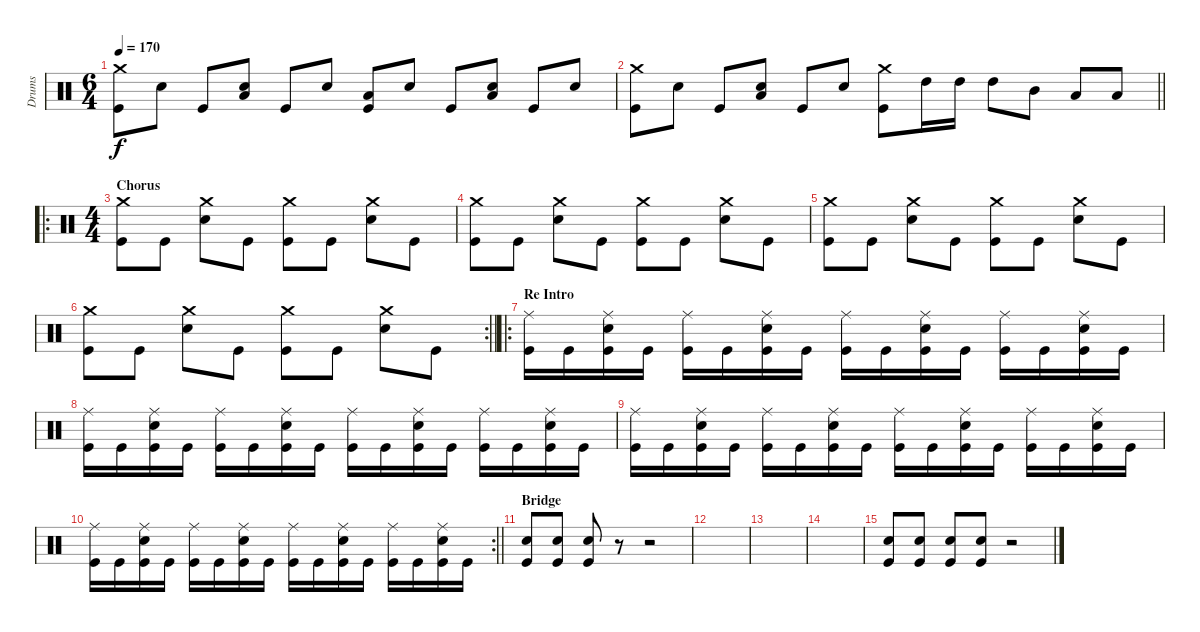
\track ("Drums" "Drums") {instrument percussion}
\staff {score}
\articulation defaults
\ts (6 4)
\tempo 170
\clef neutral
\ks c
("Crash medium (hit)" "Kick (hit)").8{dy f} "Snare (hit) 2".8 "Kick (hit)".8 ("Snare (hit) 2" "Low Floor Tom (hit)").8 "Kick (hit)".8 "Snare (hit) 2".8 ("Low Floor Tom (hit)" "Kick (hit)").8 "Snare (hit) 2".8 "Kick (hit)".8 ("Snare (hit) 2" "Low Floor Tom (hit)").8 "Kick (hit)".8 "Snare (hit) 2".8 |
\barLineRight lightlight
("Crash medium (hit)" "Kick (hit)").8 "Snare (hit) 2".8 "Kick (hit)".8 ("Snare (hit) 2" "Low Floor Tom (hit)").8 "Kick (hit)".8 "Snare (hit) 2".8 ("Crash medium (hit)" "Kick (hit)").8 "High Tom (hit)".16 "High Tom (hit)".16 "High Tom (hit)".8 "Mid Tom (hit)".8 "Low Tom (hit)".8 "Low Floor Tom (hit)".8 |
\ro
\ts (4 4)
\section ("" "Chorus")
("Crash medium (hit)" "Kick (hit)").8 "Kick (hit)".8 ("Crash medium (hit)" "Snare (hit) 2").8 "Kick (hit)".8 ("Crash medium (hit)" "Kick (hit)").8 "Kick (hit)".8 ("Crash medium (hit)" "Snare (hit) 2").8 "Kick (hit)".8 |
("Crash medium (hit)" "Kick (hit)").8 "Kick (hit)".8 ("Crash medium (hit)" "Snare (hit) 2").8 "Kick (hit)".8 ("Crash medium (hit)" "Kick (hit)").8 "Kick (hit)".8 ("Crash medium (hit)" "Snare (hit) 2").8 "Kick (hit)".8 |
("Crash medium (hit)" "Kick (hit)").8 "Kick (hit)".8 ("Crash medium (hit)" "Snare (hit) 2").8 "Kick (hit)".8 ("Crash medium (hit)" "Kick (hit)").8 "Kick (hit)".8 ("Crash medium (hit)" "Snare (hit) 2").8 "Kick (hit)".8 |
\rc 2
\barLineRight lightlight
("Crash medium (hit)" "Kick (hit)").8 "Kick (hit)".8 ("Crash medium (hit)" "Snare (hit) 2").8 "Kick (hit)".8 ("Crash medium (hit)" "Kick (hit)").8 "Kick (hit)".8 ("Crash medium (hit)" "Snare (hit) 2").8 "Kick (hit)".8 |
\ro
\section ("" "Re Intro")
("Ride (middle)" "Kick (hit)").16 "Kick (hit)".16 ("Ride (middle)" "Snare (hit) 2" "Kick (hit)").16 "Kick (hit)".16 ("Ride (middle)" "Kick (hit)").16 "Kick (hit)".16 ("Ride (middle)" "Snare (hit) 2" "Kick (hit)").16 "Kick (hit)".16 ("Ride (middle)" "Kick (hit)").16 "Kick (hit)".16 ("Ride (middle)" "Snare (hit) 2" "Kick (hit)").16 "Kick (hit)".16 ("Ride (middle)" "Kick (hit)").16 "Kick (hit)".16 ("Ride (middle)" "Snare (hit) 2" "Kick (hit)").16 "Kick (hit)".16 |
("Ride (middle)" "Kick (hit)").16 "Kick (hit)".16 ("Ride (middle)" "Snare (hit) 2" "Kick (hit)").16 "Kick (hit)".16 ("Ride (middle)" "Kick (hit)").16 "Kick (hit)".16 ("Ride (middle)" "Snare (hit) 2" "Kick (hit)").16 "Kick (hit)".16 ("Ride (middle)" "Kick (hit)").16 "Kick (hit)".16 ("Ride (middle)" "Snare (hit) 2" "Kick (hit)").16 "Kick (hit)".16 ("Ride (middle)" "Kick (hit)").16 "Kick (hit)".16 ("Ride (middle)" "Snare (hit) 2" "Kick (hit)").16 "Kick (hit)".16 |
("Ride (middle)" "Kick (hit)").16 "Kick (hit)".16 ("Ride (middle)" "Snare (hit) 2" "Kick (hit)").16 "Kick (hit)".16 ("Ride (middle)" "Kick (hit)").16 "Kick (hit)".16 ("Ride (middle)" "Snare (hit) 2" "Kick (hit)").16 "Kick (hit)".16 ("Ride (middle)" "Kick (hit)").16 "Kick (hit)".16 ("Ride (middle)" "Snare (hit) 2" "Kick (hit)").16 "Kick (hit)".16 ("Ride (middle)" "Kick (hit)").16 "Kick (hit)".16 ("Ride (middle)" "Snare (hit) 2" "Kick (hit)").16 "Kick (hit)".16 |
\rc 2
\barLineRight lightlight
("Ride (middle)" "Kick (hit)").16 "Kick (hit)".16 ("Ride (middle)" "Snare (hit) 2" "Kick (hit)").16 "Kick (hit)".16 ("Ride (middle)" "Kick (hit)").16 "Kick (hit)".16 ("Ride (middle)" "Snare (hit) 2" "Kick (hit)").16 "Kick (hit)".16 ("Ride (middle)" "Kick (hit)").16 "Kick (hit)".16 ("Ride (middle)" "Snare (hit) 2" "Kick (hit)").16 "Kick (hit)".16 ("Ride (middle)" "Kick (hit)").16 "Kick (hit)".16 ("Ride (middle)" "Snare (hit) 2" "Kick (hit)").16 "Kick (hit)".16 |
\section ("" "Bridge")
("Snare (hit) 2" "Kick (hit)").8 ("Snare (hit) 2" "Kick (hit)").8 ("Snare (hit) 2" "Kick (hit)").8 r.8 r.2 |
|
|
|
("Snare (hit) 2" "Kick (hit)").8 ("Snare (hit) 2" "Kick (hit)").8 ("Snare (hit) 2" "Kick (hit)").8 ("Snare (hit) 2" "Kick (hit)").8 r.2
